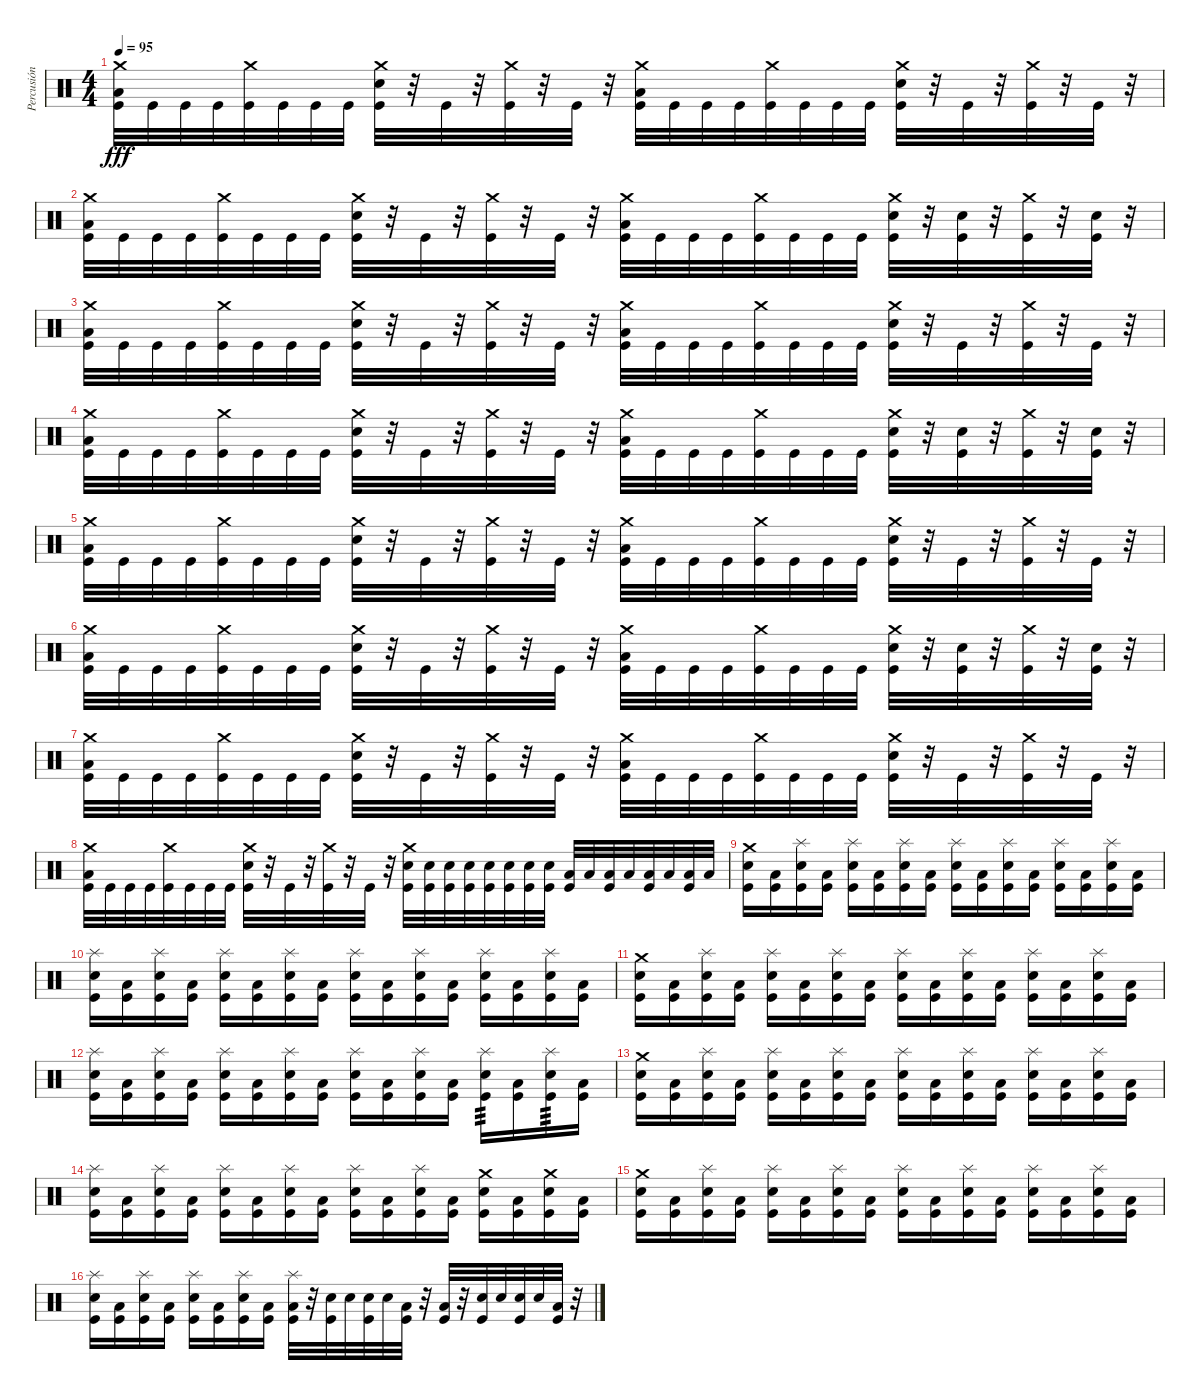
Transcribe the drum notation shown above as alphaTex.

\track ("Percusión" "Percusión") {instrument percussion}
\staff {score}
\articulation defaults
\ts (4 4)
\tempo 95
\clef neutral
\ks c
("Crash medium (hit)" "Low Floor Tom (hit)" "Kick (hit)").32{dy fff} "Kick (hit)".32 "Kick (hit)".32 "Kick (hit)".32 ("Crash medium (hit)" "Kick (hit)").32 "Kick (hit)".32 "Kick (hit)".32 "Kick (hit)".32 ("Crash medium (hit)" "Snare (hit) 2" "Kick (hit)").32 r.32 "Kick (hit)".32 r.32 ("Crash medium (hit)" "Kick (hit)").32 r.32 "Kick (hit)".32 r.32 ("Crash medium (hit)" "Low Floor Tom (hit)" "Kick (hit)").32 "Kick (hit)".32 "Kick (hit)".32 "Kick (hit)".32 ("Crash medium (hit)" "Kick (hit)").32 "Kick (hit)".32 "Kick (hit)".32 "Kick (hit)".32 ("Crash medium (hit)" "Snare (hit) 2" "Kick (hit)").32 r.32 "Kick (hit)".32 r.32 ("Crash medium (hit)" "Kick (hit)").32 r.32 "Kick (hit)".32 r.32 |
("Crash medium (hit)" "Low Floor Tom (hit)" "Kick (hit)").32 "Kick (hit)".32 "Kick (hit)".32 "Kick (hit)".32 ("Crash medium (hit)" "Kick (hit)").32 "Kick (hit)".32 "Kick (hit)".32 "Kick (hit)".32 ("Crash medium (hit)" "Snare (hit) 2" "Kick (hit)").32 r.32 "Kick (hit)".32 r.32 ("Crash medium (hit)" "Kick (hit)").32 r.32 "Kick (hit)".32 r.32 ("Crash medium (hit)" "Low Floor Tom (hit)" "Kick (hit)").32 "Kick (hit)".32 "Kick (hit)".32 "Kick (hit)".32 ("Crash medium (hit)" "Kick (hit)").32 "Kick (hit)".32 "Kick (hit)".32 "Kick (hit)".32 ("Crash medium (hit)" "Snare (hit) 2" "Kick (hit)").32 r.32 ("Snare (hit) 2" "Kick (hit)").32 r.32 ("Crash medium (hit)" "Kick (hit)").32 r.32 ("Snare (hit) 2" "Kick (hit)").32 r.32 |
("Crash medium (hit)" "Low Floor Tom (hit)" "Kick (hit)").32 "Kick (hit)".32 "Kick (hit)".32 "Kick (hit)".32 ("Crash medium (hit)" "Kick (hit)").32 "Kick (hit)".32 "Kick (hit)".32 "Kick (hit)".32 ("Crash medium (hit)" "Snare (hit) 2" "Kick (hit)").32 r.32 "Kick (hit)".32 r.32 ("Crash medium (hit)" "Kick (hit)").32 r.32 "Kick (hit)".32 r.32 ("Crash medium (hit)" "Low Floor Tom (hit)" "Kick (hit)").32 "Kick (hit)".32 "Kick (hit)".32 "Kick (hit)".32 ("Crash medium (hit)" "Kick (hit)").32 "Kick (hit)".32 "Kick (hit)".32 "Kick (hit)".32 ("Crash medium (hit)" "Snare (hit) 2" "Kick (hit)").32 r.32 "Kick (hit)".32 r.32 ("Crash medium (hit)" "Kick (hit)").32 r.32 "Kick (hit)".32 r.32 |
("Crash medium (hit)" "Low Floor Tom (hit)" "Kick (hit)").32 "Kick (hit)".32 "Kick (hit)".32 "Kick (hit)".32 ("Crash medium (hit)" "Kick (hit)").32 "Kick (hit)".32 "Kick (hit)".32 "Kick (hit)".32 ("Crash medium (hit)" "Snare (hit) 2" "Kick (hit)").32 r.32 "Kick (hit)".32 r.32 ("Crash medium (hit)" "Kick (hit)").32 r.32 "Kick (hit)".32 r.32 ("Crash medium (hit)" "Low Floor Tom (hit)" "Kick (hit)").32 "Kick (hit)".32 "Kick (hit)".32 "Kick (hit)".32 ("Crash medium (hit)" "Kick (hit)").32 "Kick (hit)".32 "Kick (hit)".32 "Kick (hit)".32 ("Crash medium (hit)" "Snare (hit) 2" "Kick (hit)").32 r.32 ("Snare (hit) 2" "Kick (hit)").32 r.32 ("Crash medium (hit)" "Kick (hit)").32 r.32 ("Snare (hit) 2" "Kick (hit)").32 r.32 |
("Crash medium (hit)" "Low Floor Tom (hit)" "Kick (hit)").32 "Kick (hit)".32 "Kick (hit)".32 "Kick (hit)".32 ("Crash medium (hit)" "Kick (hit)").32 "Kick (hit)".32 "Kick (hit)".32 "Kick (hit)".32 ("Crash medium (hit)" "Snare (hit) 2" "Kick (hit)").32 r.32 "Kick (hit)".32 r.32 ("Crash medium (hit)" "Kick (hit)").32 r.32 "Kick (hit)".32 r.32 ("Crash medium (hit)" "Low Floor Tom (hit)" "Kick (hit)").32 "Kick (hit)".32 "Kick (hit)".32 "Kick (hit)".32 ("Crash medium (hit)" "Kick (hit)").32 "Kick (hit)".32 "Kick (hit)".32 "Kick (hit)".32 ("Crash medium (hit)" "Snare (hit) 2" "Kick (hit)").32 r.32 "Kick (hit)".32 r.32 ("Crash medium (hit)" "Kick (hit)").32 r.32 "Kick (hit)".32 r.32 |
("Crash medium (hit)" "Low Floor Tom (hit)" "Kick (hit)").32 "Kick (hit)".32 "Kick (hit)".32 "Kick (hit)".32 ("Crash medium (hit)" "Kick (hit)").32 "Kick (hit)".32 "Kick (hit)".32 "Kick (hit)".32 ("Crash medium (hit)" "Snare (hit) 2" "Kick (hit)").32 r.32 "Kick (hit)".32 r.32 ("Crash medium (hit)" "Kick (hit)").32 r.32 "Kick (hit)".32 r.32 ("Crash medium (hit)" "Low Floor Tom (hit)" "Kick (hit)").32 "Kick (hit)".32 "Kick (hit)".32 "Kick (hit)".32 ("Crash medium (hit)" "Kick (hit)").32 "Kick (hit)".32 "Kick (hit)".32 "Kick (hit)".32 ("Crash medium (hit)" "Snare (hit) 2" "Kick (hit)").32 r.32 ("Snare (hit) 2" "Kick (hit)").32 r.32 ("Crash medium (hit)" "Kick (hit)").32 r.32 ("Snare (hit) 2" "Kick (hit)").32 r.32 |
("Crash medium (hit)" "Low Floor Tom (hit)" "Kick (hit)").32 "Kick (hit)".32 "Kick (hit)".32 "Kick (hit)".32 ("Crash medium (hit)" "Kick (hit)").32 "Kick (hit)".32 "Kick (hit)".32 "Kick (hit)".32 ("Crash medium (hit)" "Snare (hit) 2" "Kick (hit)").32 r.32 "Kick (hit)".32 r.32 ("Crash medium (hit)" "Kick (hit)").32 r.32 "Kick (hit)".32 r.32 ("Crash medium (hit)" "Low Floor Tom (hit)" "Kick (hit)").32 "Kick (hit)".32 "Kick (hit)".32 "Kick (hit)".32 ("Crash medium (hit)" "Kick (hit)").32 "Kick (hit)".32 "Kick (hit)".32 "Kick (hit)".32 ("Crash medium (hit)" "Snare (hit) 2" "Kick (hit)").32 r.32 "Kick (hit)".32 r.32 ("Crash medium (hit)" "Kick (hit)").32 r.32 "Kick (hit)".32 r.32 |
("Crash medium (hit)" "Low Floor Tom (hit)" "Kick (hit)").32 "Kick (hit)".32 "Kick (hit)".32 "Kick (hit)".32 ("Crash medium (hit)" "Kick (hit)").32 "Kick (hit)".32 "Kick (hit)".32 "Kick (hit)".32 ("Crash medium (hit)" "Snare (hit) 2" "Kick (hit)").32 r.32 "Kick (hit)".32 r.32 ("Crash medium (hit)" "Kick (hit)").32 r.32 "Kick (hit)".32 r.32 ("Crash medium (hit)" "Snare (hit) 2" "Kick (hit)").32 ("Snare (hit) 2" "Kick (hit)").32 ("Snare (hit) 2" "Kick (hit)").32 ("Snare (hit) 2" "Kick (hit)").32 ("Snare (hit) 2" "Kick (hit)").32 ("Snare (hit) 2" "Kick (hit)").32 ("Snare (hit) 2" "Kick (hit)").32 ("Snare (hit) 2" "Kick (hit)").32 ("Low Floor Tom (hit)" "Kick (hit)").32 "Low Floor Tom (hit)".32 ("Low Floor Tom (hit)" "Kick (hit)").32 "Low Floor Tom (hit)".32 ("Low Floor Tom (hit)" "Kick (hit)").32 "Low Floor Tom (hit)".32 ("Low Floor Tom (hit)" "Kick (hit)").32 "Low Floor Tom (hit)".32 |
("Crash medium (hit)" "Snare (hit) 2" "Kick (hit)").16 ("Low Floor Tom (hit)" "Kick (hit)").16 ("Splash (hit)" "Snare (hit) 2" "Kick (hit)").16 ("Low Floor Tom (hit)" "Kick (hit)").16 ("Splash (hit)" "Snare (hit) 2" "Kick (hit)").16 ("Low Floor Tom (hit)" "Kick (hit)").16 ("Splash (hit)" "Snare (hit) 2" "Kick (hit)").16 ("Low Floor Tom (hit)" "Kick (hit)").16 ("Splash (hit)" "Snare (hit) 2" "Kick (hit)").16 ("Low Floor Tom (hit)" "Kick (hit)").16 ("Splash (hit)" "Snare (hit) 2" "Kick (hit)").16 ("Low Floor Tom (hit)" "Kick (hit)").16 ("Splash (hit)" "Snare (hit) 2" "Kick (hit)").16 ("Low Floor Tom (hit)" "Kick (hit)").16 ("Splash (hit)" "Snare (hit) 2" "Kick (hit)").16 ("Low Floor Tom (hit)" "Kick (hit)").16 |
("Splash (hit)" "Snare (hit) 2" "Kick (hit)").16 ("Low Floor Tom (hit)" "Kick (hit)").16 ("Splash (hit)" "Snare (hit) 2" "Kick (hit)").16 ("Low Floor Tom (hit)" "Kick (hit)").16 ("Splash (hit)" "Snare (hit) 2" "Kick (hit)").16 ("Low Floor Tom (hit)" "Kick (hit)").16 ("Splash (hit)" "Snare (hit) 2" "Kick (hit)").16 ("Low Floor Tom (hit)" "Kick (hit)").16 ("Splash (hit)" "Snare (hit) 2" "Kick (hit)").16 ("Low Floor Tom (hit)" "Kick (hit)").16 ("Splash (hit)" "Snare (hit) 2" "Kick (hit)").16 ("Low Floor Tom (hit)" "Kick (hit)").16 ("Splash (hit)" "Snare (hit) 2" "Kick (hit)").16 ("Low Floor Tom (hit)" "Kick (hit)").16 ("Splash (hit)" "Snare (hit) 2" "Kick (hit)").16 ("Low Floor Tom (hit)" "Kick (hit)").16 |
("Crash medium (hit)" "Snare (hit) 2" "Kick (hit)").16 ("Low Floor Tom (hit)" "Kick (hit)").16 ("Splash (hit)" "Snare (hit) 2" "Kick (hit)").16 ("Low Floor Tom (hit)" "Kick (hit)").16 ("Splash (hit)" "Snare (hit) 2" "Kick (hit)").16 ("Low Floor Tom (hit)" "Kick (hit)").16 ("Splash (hit)" "Snare (hit) 2" "Kick (hit)").16 ("Low Floor Tom (hit)" "Kick (hit)").16 ("Splash (hit)" "Snare (hit) 2" "Kick (hit)").16 ("Low Floor Tom (hit)" "Kick (hit)").16 ("Splash (hit)" "Snare (hit) 2" "Kick (hit)").16 ("Low Floor Tom (hit)" "Kick (hit)").16 ("Splash (hit)" "Snare (hit) 2" "Kick (hit)").16 ("Low Floor Tom (hit)" "Kick (hit)").16 ("Splash (hit)" "Snare (hit) 2" "Kick (hit)").16 ("Low Floor Tom (hit)" "Kick (hit)").16 |
("Splash (hit)" "Snare (hit) 2" "Kick (hit)").16 ("Low Floor Tom (hit)" "Kick (hit)").16 ("Splash (hit)" "Snare (hit) 2" "Kick (hit)").16 ("Low Floor Tom (hit)" "Kick (hit)").16 ("Splash (hit)" "Snare (hit) 2" "Kick (hit)").16 ("Low Floor Tom (hit)" "Kick (hit)").16 ("Splash (hit)" "Snare (hit) 2" "Kick (hit)").16 ("Low Floor Tom (hit)" "Kick (hit)").16 ("Splash (hit)" "Snare (hit) 2" "Kick (hit)").16 ("Low Floor Tom (hit)" "Kick (hit)").16 ("Splash (hit)" "Snare (hit) 2" "Kick (hit)").16 ("Low Floor Tom (hit)" "Kick (hit)").16 ("Splash (hit)" "Snare (hit) 2" "Kick (hit)").16{tp 3} ("Low Floor Tom (hit)" "Kick (hit)").16 ("Splash (hit)" "Snare (hit) 2" "Kick (hit)").16{tp 3} ("Low Floor Tom (hit)" "Kick (hit)").16 |
("Crash medium (hit)" "Snare (hit) 2" "Kick (hit)").16 ("Low Floor Tom (hit)" "Kick (hit)").16 ("Splash (hit)" "Snare (hit) 2" "Kick (hit)").16 ("Low Floor Tom (hit)" "Kick (hit)").16 ("Splash (hit)" "Snare (hit) 2" "Kick (hit)").16 ("Low Floor Tom (hit)" "Kick (hit)").16 ("Splash (hit)" "Snare (hit) 2" "Kick (hit)").16 ("Low Floor Tom (hit)" "Kick (hit)").16 ("Splash (hit)" "Snare (hit) 2" "Kick (hit)").16 ("Low Floor Tom (hit)" "Kick (hit)").16 ("Splash (hit)" "Snare (hit) 2" "Kick (hit)").16 ("Low Floor Tom (hit)" "Kick (hit)").16 ("Splash (hit)" "Snare (hit) 2" "Kick (hit)").16 ("Low Floor Tom (hit)" "Kick (hit)").16 ("Splash (hit)" "Snare (hit) 2" "Kick (hit)").16 ("Low Floor Tom (hit)" "Kick (hit)").16 |
("Splash (hit)" "Snare (hit) 2" "Kick (hit)").16 ("Low Floor Tom (hit)" "Kick (hit)").16 ("Splash (hit)" "Snare (hit) 2" "Kick (hit)").16 ("Low Floor Tom (hit)" "Kick (hit)").16 ("Splash (hit)" "Snare (hit) 2" "Kick (hit)").16 ("Low Floor Tom (hit)" "Kick (hit)").16 ("Splash (hit)" "Snare (hit) 2" "Kick (hit)").16 ("Low Floor Tom (hit)" "Kick (hit)").16 ("Splash (hit)" "Snare (hit) 2" "Kick (hit)").16 ("Low Floor Tom (hit)" "Kick (hit)").16 ("Splash (hit)" "Snare (hit) 2" "Kick (hit)").16 ("Low Floor Tom (hit)" "Kick (hit)").16 ("Crash medium (hit)" "Snare (hit) 2" "Kick (hit)").16 ("Low Floor Tom (hit)" "Kick (hit)").16 ("Crash medium (hit)" "Snare (hit) 2" "Kick (hit)").16 ("Low Floor Tom (hit)" "Kick (hit)").16 |
("Crash medium (hit)" "Snare (hit) 2" "Kick (hit)").16 ("Low Floor Tom (hit)" "Kick (hit)").16 ("Splash (hit)" "Snare (hit) 2" "Kick (hit)").16 ("Low Floor Tom (hit)" "Kick (hit)").16 ("Splash (hit)" "Snare (hit) 2" "Kick (hit)").16 ("Low Floor Tom (hit)" "Kick (hit)").16 ("Splash (hit)" "Snare (hit) 2" "Kick (hit)").16 ("Low Floor Tom (hit)" "Kick (hit)").16 ("Splash (hit)" "Snare (hit) 2" "Kick (hit)").16 ("Low Floor Tom (hit)" "Kick (hit)").16 ("Splash (hit)" "Snare (hit) 2" "Kick (hit)").16 ("Low Floor Tom (hit)" "Kick (hit)").16 ("Splash (hit)" "Snare (hit) 2" "Kick (hit)").16 ("Low Floor Tom (hit)" "Kick (hit)").16 ("Splash (hit)" "Snare (hit) 2" "Kick (hit)").16 ("Low Floor Tom (hit)" "Kick (hit)").16 |
("Splash (hit)" "Snare (hit) 2" "Kick (hit)").16 ("Low Floor Tom (hit)" "Kick (hit)").16 ("Splash (hit)" "Snare (hit) 2" "Kick (hit)").16 ("Low Floor Tom (hit)" "Kick (hit)").16 ("Splash (hit)" "Snare (hit) 2" "Kick (hit)").16 ("Low Floor Tom (hit)" "Kick (hit)").16 ("Splash (hit)" "Snare (hit) 2" "Kick (hit)").16 ("Low Floor Tom (hit)" "Kick (hit)").16 ("Splash (hit)" "Low Floor Tom (hit)" "Kick (hit)").32 r.32 ("Snare (hit) 2" "Kick (hit)").32 "Snare (hit) 2".32 ("Snare (hit) 2" "Kick (hit)").32 "Snare (hit) 2".32 ("Low Floor Tom (hit)" "Kick (hit)").32 r.32 ("Low Floor Tom (hit)" "Kick (hit)").32 r.32 ("Snare (hit) 2" "Kick (hit)").32 "Snare (hit) 2".32 ("Snare (hit) 2" "Kick (hit)").32 "Snare (hit) 2".32 ("Low Floor Tom (hit)" "Kick (hit)").32 r.32
